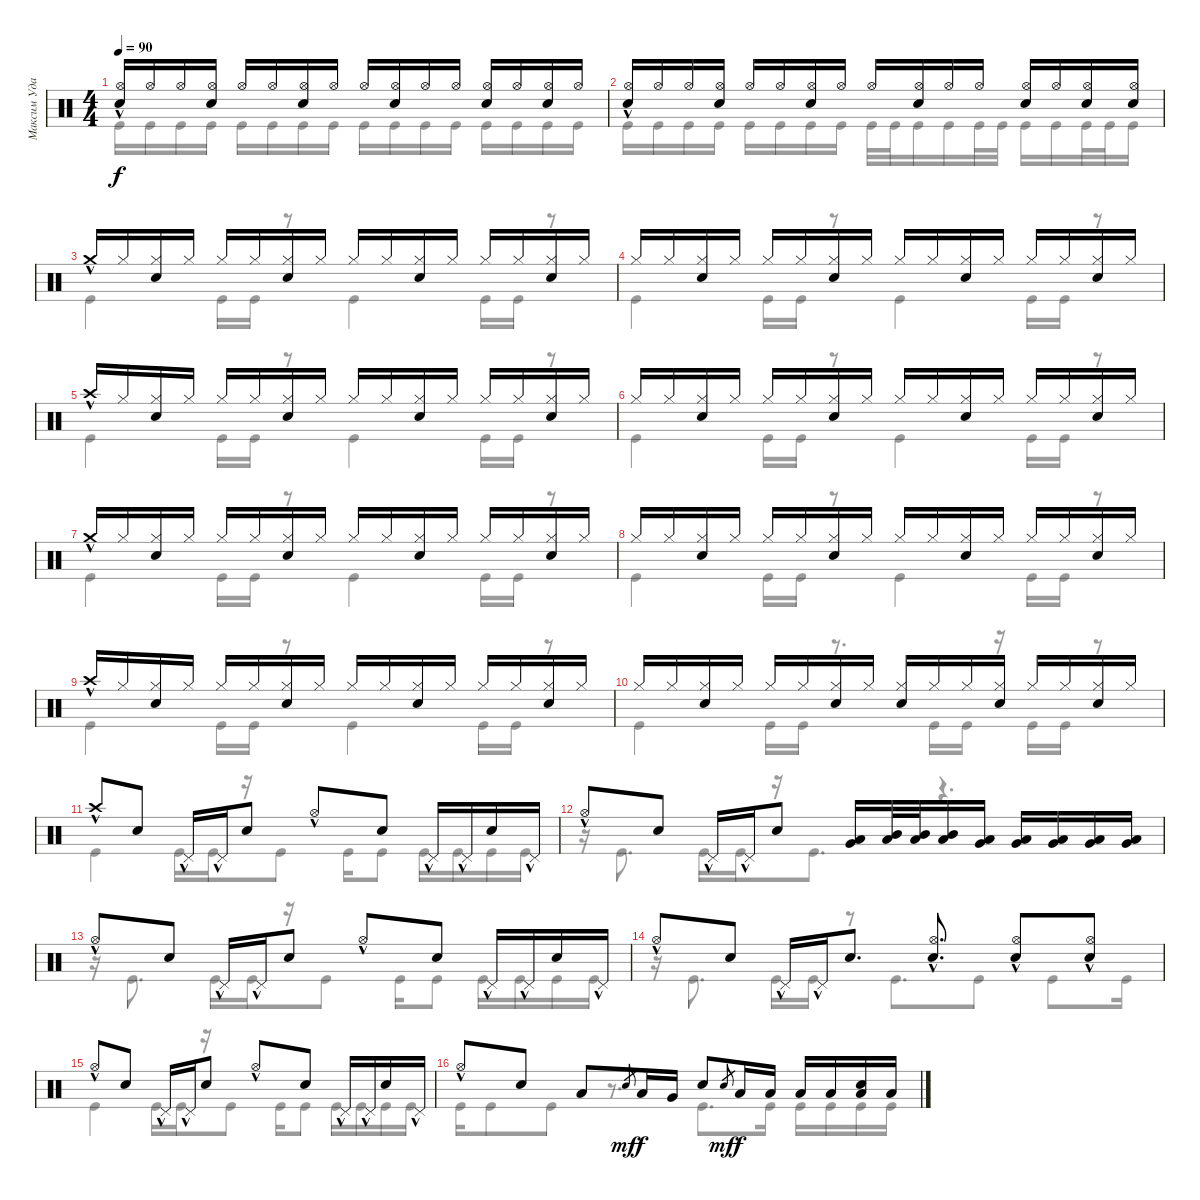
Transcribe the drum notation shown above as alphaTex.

\track ("Максим Удалов" "Максим Уда") {instrument percussion}
\staff {score}
\articulation defaults
\voice
\ts (4 4)
\tempo 90
\clef neutral
\ks c
("Snare (hit) 2" "Hi-Hat (open)"{hac}).16{dy f} "Hi-Hat (open)".16 "Hi-Hat (open)".16 ("Hi-Hat (open)" "Snare (hit) 2").16 "Hi-Hat (open)".16 "Hi-Hat (open)".16 ("Hi-Hat (open)" "Snare (hit) 2").16 "Hi-Hat (open)".16 "Hi-Hat (open)".16 ("Hi-Hat (open)" "Snare (hit) 2").16 "Hi-Hat (open)".16 "Hi-Hat (open)".16 ("Hi-Hat (open)" "Snare (hit) 2").16 "Hi-Hat (open)".16 ("Hi-Hat (open)" "Snare (hit) 2").16 "Hi-Hat (open)".16 |
("Snare (hit) 2" "Hi-Hat (open)"{hac}).16 "Hi-Hat (open)".16 "Hi-Hat (open)".16 ("Hi-Hat (open)" "Snare (hit) 2").16 "Hi-Hat (open)".16 "Hi-Hat (open)".16 ("Hi-Hat (open)" "Snare (hit) 2").16 "Hi-Hat (open)".16 "Hi-Hat (open)".16 ("Hi-Hat (open)" "Snare (hit) 2").16 "Hi-Hat (open)".16 "Hi-Hat (open)".16 ("Hi-Hat (open)" "Snare (hit) 2").16 "Hi-Hat (open)".16 ("Hi-Hat (open)" "Snare (hit) 2").16 ("Hi-Hat (open)" "Snare (hit) 2").16 |
"Crash medium (hit)"{hac}.16 "Hi-Hat (closed)".16 ("Hi-Hat (closed)" "Snare (hit) 2").16 "Hi-Hat (closed)".16 "Hi-Hat (closed)".16 "Hi-Hat (closed)".16 ("Hi-Hat (closed)" "Snare (hit) 2").16 "Hi-Hat (closed)".16 "Hi-Hat (closed)".16 "Hi-Hat (closed)".16 ("Hi-Hat (closed)" "Snare (hit) 2").16 "Hi-Hat (closed)".16 "Hi-Hat (closed)".16 "Hi-Hat (closed)".16 ("Hi-Hat (closed)" "Snare (hit) 2").16 "Hi-Hat (closed)".16 |
"Hi-Hat (closed)".16 "Hi-Hat (closed)".16 ("Hi-Hat (closed)" "Snare (hit) 2").16 "Hi-Hat (closed)".16 "Hi-Hat (closed)".16 "Hi-Hat (closed)".16 ("Hi-Hat (closed)" "Snare (hit) 2").16 "Hi-Hat (closed)".16 "Hi-Hat (closed)".16 "Hi-Hat (closed)".16 ("Hi-Hat (closed)" "Snare (hit) 2").16 "Hi-Hat (closed)".16 "Hi-Hat (closed)".16 "Hi-Hat (closed)".16 ("Hi-Hat (closed)" "Snare (hit) 2").16 "Hi-Hat (closed)".16 |
"Crash high (hit)"{hac}.16 "Hi-Hat (closed)".16 ("Hi-Hat (closed)" "Snare (hit) 2").16 "Hi-Hat (closed)".16 "Hi-Hat (closed)".16 "Hi-Hat (closed)".16 ("Hi-Hat (closed)" "Snare (hit) 2").16 "Hi-Hat (closed)".16 "Hi-Hat (closed)".16 "Hi-Hat (closed)".16 ("Hi-Hat (closed)" "Snare (hit) 2").16 "Hi-Hat (closed)".16 "Hi-Hat (closed)".16 "Hi-Hat (closed)".16 ("Hi-Hat (closed)" "Snare (hit) 2").16 "Hi-Hat (closed)".16 |
"Hi-Hat (closed)".16 "Hi-Hat (closed)".16 ("Hi-Hat (closed)" "Snare (hit) 2").16 "Hi-Hat (closed)".16 "Hi-Hat (closed)".16 "Hi-Hat (closed)".16 ("Hi-Hat (closed)" "Snare (hit) 2").16 "Hi-Hat (closed)".16 "Hi-Hat (closed)".16 "Hi-Hat (closed)".16 ("Hi-Hat (closed)" "Snare (hit) 2").16 "Hi-Hat (closed)".16 "Hi-Hat (closed)".16 "Hi-Hat (closed)".16 ("Hi-Hat (closed)" "Snare (hit) 2").16 "Hi-Hat (closed)".16 |
"Crash medium (hit)"{hac}.16 "Hi-Hat (closed)".16 ("Hi-Hat (closed)" "Snare (hit) 2").16 "Hi-Hat (closed)".16 "Hi-Hat (closed)".16 "Hi-Hat (closed)".16 ("Hi-Hat (closed)" "Snare (hit) 2").16 "Hi-Hat (closed)".16 "Hi-Hat (closed)".16 "Hi-Hat (closed)".16 ("Hi-Hat (closed)" "Snare (hit) 2").16 "Hi-Hat (closed)".16 "Hi-Hat (closed)".16 "Hi-Hat (closed)".16 ("Hi-Hat (closed)" "Snare (hit) 2").16 "Hi-Hat (closed)".16 |
"Hi-Hat (closed)".16 "Hi-Hat (closed)".16 ("Hi-Hat (closed)" "Snare (hit) 2").16 "Hi-Hat (closed)".16 "Hi-Hat (closed)".16 "Hi-Hat (closed)".16 ("Hi-Hat (closed)" "Snare (hit) 2").16 "Hi-Hat (closed)".16 "Hi-Hat (closed)".16 "Hi-Hat (closed)".16 ("Hi-Hat (closed)" "Snare (hit) 2").16 "Hi-Hat (closed)".16 "Hi-Hat (closed)".16 "Hi-Hat (closed)".16 ("Hi-Hat (closed)" "Snare (hit) 2").16 "Hi-Hat (closed)".16 |
"Crash high (hit)"{hac}.16 "Hi-Hat (closed)".16 ("Hi-Hat (closed)" "Snare (hit) 2").16 "Hi-Hat (closed)".16 "Hi-Hat (closed)".16 "Hi-Hat (closed)".16 ("Hi-Hat (closed)" "Snare (hit) 2").16 "Hi-Hat (closed)".16 "Hi-Hat (closed)".16 "Hi-Hat (closed)".16 ("Hi-Hat (closed)" "Snare (hit) 2").16 "Hi-Hat (closed)".16 "Hi-Hat (closed)".16 "Hi-Hat (closed)".16 ("Hi-Hat (closed)" "Snare (hit) 2").16 "Hi-Hat (closed)".16 |
"Hi-Hat (closed)".16 "Hi-Hat (closed)".16 ("Hi-Hat (closed)" "Snare (hit) 2").16 "Hi-Hat (closed)".16 "Hi-Hat (closed)".16 "Hi-Hat (closed)".16 ("Hi-Hat (closed)" "Snare (hit) 2").16 "Hi-Hat (closed)".16 ("Snare (hit) 2" "Hi-Hat (closed)").16 "Hi-Hat (closed)".16 "Hi-Hat (closed)".16 ("Hi-Hat (closed)" "Snare (hit) 2").16 "Hi-Hat (closed)".16 "Hi-Hat (closed)".16 ("Hi-Hat (closed)" "Snare (hit) 2").16 "Hi-Hat (closed)".16 |
"Crash high (hit)"{hac}.8 "Snare (hit) 2".8 "Pedal Hi-Hat (hit)"{hac}.16 "Pedal Hi-Hat (hit)"{hac}.16 "Snare (hit) 2".8 "Hi-Hat (open)"{hac}.8 "Snare (hit) 2".8 "Pedal Hi-Hat (hit)"{hac}.16 "Pedal Hi-Hat (hit)"{hac}.16 "Snare (hit) 2".16 "Pedal Hi-Hat (hit)"{hac}.16 |
"Hi-Hat (open)"{hac}.8 "Snare (hit) 2".8 "Pedal Hi-Hat (hit)"{hac}.16 "Pedal Hi-Hat (hit)"{hac}.16 "Snare (hit) 2".8 ("Low Tom (hit)" "Very Low Tom (hit)").16 ("Low Tom (hit)" "Mid Tom (hit)").32 ("Low Tom (hit)" "Mid Tom (hit)").32 ("Low Tom (hit)" "Mid Tom (hit)").16 ("Low Tom (hit)" "Very Low Tom (hit)").16 ("Low Tom (hit)" "Very Low Tom (hit)").16 ("Very Low Tom (hit)" "Low Floor Tom (hit)").16 ("Very Low Tom (hit)" "Low Floor Tom (hit)").16 ("Very Low Tom (hit)" "Low Floor Tom (hit)").16 |
"Hi-Hat (open)"{hac}.8 "Snare (hit) 2".8 "Pedal Hi-Hat (hit)"{hac}.16 "Pedal Hi-Hat (hit)"{hac}.16 "Snare (hit) 2".8 "Hi-Hat (open)"{hac}.8 "Snare (hit) 2".8 "Pedal Hi-Hat (hit)"{hac}.16 "Pedal Hi-Hat (hit)"{hac}.16 "Snare (hit) 2".16 "Pedal Hi-Hat (hit)"{hac}.16 |
"Hi-Hat (open)"{hac}.8 "Snare (hit) 2".8 "Pedal Hi-Hat (hit)"{hac}.16 "Pedal Hi-Hat (hit)"{hac}.16 "Snare (hit) 2".8{d} ("Snare (hit) 2" "Hi-Hat (open)"{hac}).8{d} ("Snare (hit) 2" "Hi-Hat (open)"{hac}).8 ("Snare (hit) 2" "Hi-Hat (open)"{hac}).8 |
"Hi-Hat (open)"{hac}.8 "Snare (hit) 2".8 "Pedal Hi-Hat (hit)"{hac}.16 "Pedal Hi-Hat (hit)"{hac}.16 "Snare (hit) 2".8 "Hi-Hat (open)"{hac}.8 "Snare (hit) 2".8 "Pedal Hi-Hat (hit)"{hac}.16 "Pedal Hi-Hat (hit)"{hac}.16 "Snare (hit) 2".16 "Pedal Hi-Hat (hit)"{hac}.16 |
"Hi-Hat (open)"{hac}.8 "Snare (hit) 2".8 "Low Tom (hit)".8 "Snare (hit)".8{gr dy mf} "Low Tom (hit)".16{dy f} "Very Low Tom (hit)".16 "Snare (hit) 2".8 "Snare (hit)".8{gr dy mf} "Low Tom (hit)".16{dy f} "Low Tom (hit)".16 "Low Tom (hit)".16 "Low Tom (hit)".16 ("Low Tom (hit)" "Snare (hit) 2").16 "Low Tom (hit)".16
\voice
\clef neutral
\ottava regular
\simile none
\ks c "Kick (hit)".16{dy f} "Kick (hit)".16 "Kick (hit)".16 "Kick (hit)".16 "Kick (hit)".16 "Kick (hit)".16 "Kick (hit)".16 "Kick (hit)".16 "Kick (hit)".16 "Kick (hit)".16 "Kick (hit)".16 "Kick (hit)".16 "Kick (hit)".16 "Kick (hit)".16 "Kick (hit)".16 "Kick (hit)".16
|
"Kick (hit)".16 "Kick (hit)".16 "Kick (hit)".16 "Kick (hit)".16 "Kick (hit)".16 "Kick (hit)".16 "Kick (hit)".16 "Kick (hit)".16 "Kick (hit)".32 "Kick (hit)".32 "Kick (hit)".16 "Kick (hit)".16 "Kick (hit)".32 "Kick (hit)".32 "Kick (hit)".16 "Kick (hit)".16 "Kick (hit)".32 "Kick (hit)".32 "Kick (hit)".16 |
"Kick (hit)".4 "Kick (hit)".16 "Kick (hit)".16 r.8 "Kick (hit)".4 "Kick (hit)".16 "Kick (hit)".16 r.8 |
"Kick (hit)".4 "Kick (hit)".16 "Kick (hit)".16 r.8 "Kick (hit)".4 "Kick (hit)".16 "Kick (hit)".16 r.8 |
"Kick (hit)".4 "Kick (hit)".16 "Kick (hit)".16 r.8 "Kick (hit)".4 "Kick (hit)".16 "Kick (hit)".16 r.8 |
"Kick (hit)".4 "Kick (hit)".16 "Kick (hit)".16 r.8 "Kick (hit)".4 "Kick (hit)".16 "Kick (hit)".16 r.8 |
"Kick (hit)".4 "Kick (hit)".16 "Kick (hit)".16 r.8 "Kick (hit)".4 "Kick (hit)".16 "Kick (hit)".16 r.8 |
"Kick (hit)".4 "Kick (hit)".16 "Kick (hit)".16 r.8 "Kick (hit)".4 "Kick (hit)".16 "Kick (hit)".16 r.8 |
"Kick (hit)".4 "Kick (hit)".16 "Kick (hit)".16 r.8 "Kick (hit)".4 "Kick (hit)".16 "Kick (hit)".16 r.8 |
"Kick (hit)".4 "Kick (hit)".16 "Kick (hit)".16 r.8{d} "Kick (hit)".16 "Kick (hit)".16 r.16 "Kick (hit)".16 "Kick (hit)".16 r.8 |
"Kick (hit)".4 "Kick (hit)".16 "Kick (hit)".16 r.16 "Kick (hit)".8 "Kick (hit)".16 "Kick (hit)".8 "Kick (hit)".16 "Kick (hit)".16 "Kick (hit)".16 "Kick (hit)".16 |
r.16 "Kick (hit)".8{d} "Kick (hit)".16 "Kick (hit)".16 r.16 "Kick (hit)".8{d} r.4{d} |
r.16 "Kick (hit)".8{d} "Kick (hit)".16 "Kick (hit)".16 r.16 "Kick (hit)".8 "Kick (hit)".16 "Kick (hit)".8 "Kick (hit)".16 "Kick (hit)".16 "Kick (hit)".16 "Kick (hit)".16 |
r.16 "Kick (hit)".8{d} "Kick (hit)".16 "Kick (hit)".16 r.8 "Kick (hit)".8{d} "Kick (hit)".8 "Kick (hit)".8 "Kick (hit)".16 |
"Kick (hit)".4 "Kick (hit)".16 "Kick (hit)".16 r.16 "Kick (hit)".8 "Kick (hit)".16 "Kick (hit)".8 "Kick (hit)".16 "Kick (hit)".16 "Kick (hit)".16 "Kick (hit)".16 |
"Kick (hit)".16 "Kick (hit)".8 "Kick (hit)".8 r.8{d} "Kick (hit)".8{d} "Kick (hit)".16 "Kick (hit)".16 "Kick (hit)".16 "Kick (hit)".16 "Kick (hit)".16
